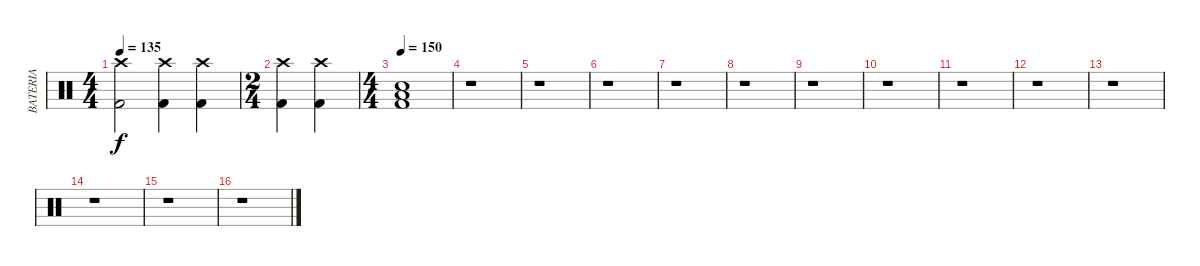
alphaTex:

\track ("BATERIA" "BATERIA") {instrument percussion}
\staff {score}
\articulation defaults
\ts (4 4)
\tempo 135
\clef neutral
\ks c
("Crash high (hit)" "Kick (hit) 2").2{dy f volume 13} ("Crash high (hit)" "Kick (hit) 2").4 ("Crash high (hit)" "Kick (hit) 2").4 |
\ts (2 4)
("Crash high (hit)" "Kick (hit) 2").4 ("Crash high (hit)" "Kick (hit) 2").4 |
\ts (4 4)
\tempo 150
("Snare (hit) 2" "Low Floor Tom (hit)" "Kick (hit) 2").1 |
r.1 |
r.1 |
r.1 |
r.1 |
r.1 |
r.1 |
r.1 |
r.1 |
r.1 |
r.1 |
r.1 |
r.1 |
r.1
